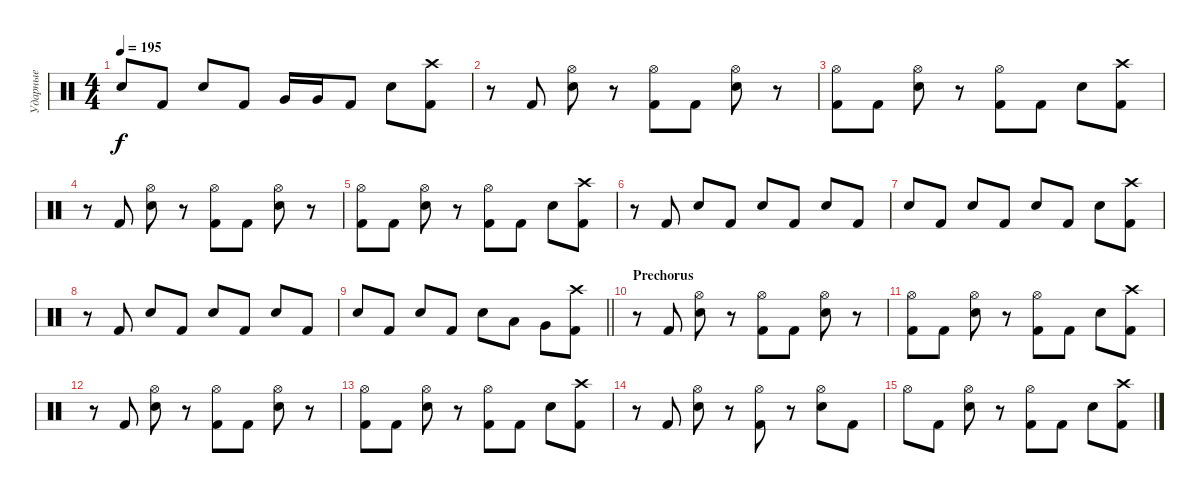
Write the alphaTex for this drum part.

\track ("Ударные" "Ударные") {instrument percussion}
\staff {score}
\articulation defaults
\ts (4 4)
\tempo 195
\clef neutral
\ks c "Snare (hit) 2".8{dy f} "Kick (hit) 2".8 "Snare (hit) 2".8 "Kick (hit) 2".8 "Very Low Tom (hit)".16 "Very Low Tom (hit)".16 "Kick (hit) 2".8 "Electric Snare (hit)".8
("Crash high (hit)" "Kick (hit) 2").8 |
r.8 "Kick (hit) 2".8 ("Hi-Hat (open)" "Electric Snare (hit)").8 r.8 ("Hi-Hat (open)" "Kick (hit) 2").8 "Kick (hit) 2".8 ("Hi-Hat (open)" "Electric Snare (hit)").8 r.8 |
("Hi-Hat (open)" "Kick (hit) 2").8 "Kick (hit) 2".8 ("Hi-Hat (open)" "Electric Snare (hit)").8 r.8 ("Hi-Hat (open)" "Kick (hit) 2").8 "Kick (hit) 2".8 "Electric Snare (hit)".8 ("Crash high (hit)" "Kick (hit) 2").8 |
r.8 "Kick (hit) 2".8 ("Hi-Hat (open)" "Electric Snare (hit)").8 r.8 ("Hi-Hat (open)" "Kick (hit) 2").8 "Kick (hit) 2".8 ("Hi-Hat (open)" "Electric Snare (hit)").8 r.8 |
("Hi-Hat (open)" "Kick (hit) 2").8 "Kick (hit) 2".8 ("Hi-Hat (open)" "Electric Snare (hit)").8 r.8 ("Hi-Hat (open)" "Kick (hit) 2").8 "Kick (hit) 2".8 "Electric Snare (hit)".8 ("Crash high (hit)" "Kick (hit) 2").8 |
r.8 "Kick (hit) 2".8 "Snare (hit) 2".8 "Kick (hit) 2".8 "Snare (hit) 2".8 "Kick (hit) 2".8 "Snare (hit) 2".8 "Kick (hit) 2".8 |
"Snare (hit) 2".8 "Kick (hit) 2".8 "Snare (hit) 2".8 "Kick (hit) 2".8 "Snare (hit) 2".8 "Kick (hit) 2".8 "Electric Snare (hit)".8 ("Crash high (hit)" "Kick (hit) 2").8 |
r.8 "Kick (hit) 2".8 "Snare (hit) 2".8 "Kick (hit) 2".8 "Snare (hit) 2".8 "Kick (hit) 2".8 "Snare (hit) 2".8 "Kick (hit) 2".8 |
\barLineRight lightlight "Snare (hit) 2".8 "Kick (hit) 2".8 "Snare (hit) 2".8 "Kick (hit) 2".8 "Electric Snare (hit)".8 "Low Tom (hit)".8 "Very Low Tom (hit)".8
("Crash high (hit)" "Kick (hit) 2").8 |
\section ("" "Prechorus")
r.8 "Kick (hit) 2".8 ("Hi-Hat (open)" "Electric Snare (hit)").8 r.8 ("Hi-Hat (open)" "Kick (hit) 2").8 "Kick (hit) 2".8 ("Hi-Hat (open)" "Electric Snare (hit)").8 r.8 |
("Hi-Hat (open)" "Kick (hit) 2").8 "Kick (hit) 2".8 ("Hi-Hat (open)" "Electric Snare (hit)").8 r.8 ("Hi-Hat (open)" "Kick (hit) 2").8 "Kick (hit) 2".8 "Electric Snare (hit)".8 ("Crash high (hit)" "Kick (hit) 2").8 |
r.8 "Kick (hit) 2".8 ("Hi-Hat (open)" "Electric Snare (hit)").8 r.8 ("Hi-Hat (open)" "Kick (hit) 2").8 "Kick (hit) 2".8 ("Hi-Hat (open)" "Electric Snare (hit)").8 r.8 |
("Hi-Hat (open)" "Kick (hit) 2").8 "Kick (hit) 2".8 ("Hi-Hat (open)" "Electric Snare (hit)").8 r.8 ("Hi-Hat (open)" "Kick (hit) 2").8 "Kick (hit) 2".8 "Electric Snare (hit)".8 ("Crash high (hit)" "Kick (hit) 2").8 |
r.8 "Kick (hit) 2".8 ("Hi-Hat (open)" "Electric Snare (hit)").8 r.8 ("Hi-Hat (open)" "Kick (hit) 2").8 r.8 ("Hi-Hat (open)" "Electric Snare (hit)").8 "Kick (hit) 2".8 |
"Hi-Hat (open)".8 "Kick (hit) 2".8 ("Hi-Hat (open)" "Electric Snare (hit)").8 r.8 ("Hi-Hat (open)" "Kick (hit) 2").8 "Kick (hit) 2".8 "Electric Snare (hit)".8 ("Crash high (hit)" "Kick (hit) 2").8
